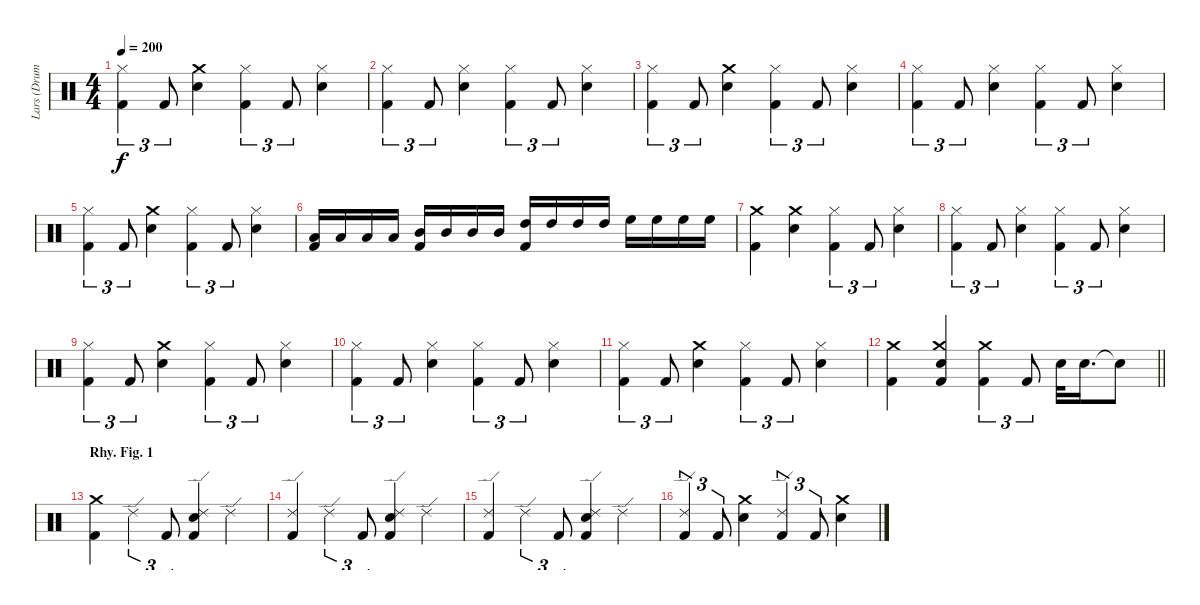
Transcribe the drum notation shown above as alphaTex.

\track ("Lars (Drums)" "Lars (Drum") {instrument percussion}
\staff {score}
\articulation defaults
\ts (4 4)
\tempo 200
\clef neutral
\ks c
("Kick (hit) 2" "Hi-Hat (closed)").4{tu (3 2) dy f} "Kick (hit) 2".8{tu (3 2)} ("Crash medium (hit)" "Snare (hit) 2").4 ("Kick (hit) 2" "Hi-Hat (closed)").4{tu (3 2)} "Kick (hit) 2".8{tu (3 2)} ("Snare (hit) 2" "Hi-Hat (closed)").4 |
("Kick (hit) 2" "Hi-Hat (closed)").4{tu (3 2)} "Kick (hit) 2".8{tu (3 2)} ("Snare (hit) 2" "Hi-Hat (closed)").4 ("Kick (hit) 2" "Hi-Hat (closed)").4{tu (3 2)} "Kick (hit) 2".8{tu (3 2)} ("Snare (hit) 2" "Hi-Hat (closed)").4 |
("Kick (hit) 2" "Hi-Hat (closed)").4{tu (3 2)} "Kick (hit) 2".8{tu (3 2)} ("Crash medium (hit)" "Snare (hit) 2").4 ("Kick (hit) 2" "Hi-Hat (closed)").4{tu (3 2)} "Kick (hit) 2".8{tu (3 2)} ("Snare (hit) 2" "Hi-Hat (closed)").4 |
("Kick (hit) 2" "Hi-Hat (closed)").4{tu (3 2)} "Kick (hit) 2".8{tu (3 2)} ("Snare (hit) 2" "Hi-Hat (closed)").4 ("Kick (hit) 2" "Hi-Hat (closed)").4{tu (3 2)} "Kick (hit) 2".8{tu (3 2)} ("Snare (hit) 2" "Hi-Hat (closed)").4 |
("Kick (hit) 2" "Hi-Hat (closed)").4{tu (3 2)} "Kick (hit) 2".8{tu (3 2)} ("Crash medium (hit)" "Snare (hit) 2").4 ("Kick (hit) 2" "Hi-Hat (closed)").4{tu (3 2)} "Kick (hit) 2".8{tu (3 2)} ("Snare (hit) 2" "Hi-Hat (closed)").4 |
("Low Tom (hit)" "Kick (hit) 2").16 "Low Tom (hit)".16 "Low Tom (hit)".16 "Low Tom (hit)".16 ("Mid Tom (hit)" "Kick (hit) 2").16 "Mid Tom (hit)".16 "Mid Tom (hit)".16 "Mid Tom (hit)".16 ("High Tom (hit)" "Kick (hit) 2").16 "High Tom (hit)".16 "High Tom (hit)".16 "High Tom (hit)".16 "High Floor Tom (hit)".16 "High Floor Tom (hit)".16 "High Floor Tom (hit)".16 "High Floor Tom (hit)".16 |
("Kick (hit) 2" "Crash medium (hit)").4 ("Snare (hit) 2" "Crash medium (hit)").4 ("Hi-Hat (closed)" "Kick (hit) 2").4{tu (3 2)} "Kick (hit) 2".8{tu (3 2)} ("Hi-Hat (closed)" "Snare (hit) 2").4 |
("Kick (hit) 2" "Hi-Hat (closed)").4{tu (3 2)} "Kick (hit) 2".8{tu (3 2)} ("Snare (hit) 2" "Hi-Hat (closed)").4 ("Kick (hit) 2" "Hi-Hat (closed)").4{tu (3 2)} "Kick (hit) 2".8{tu (3 2)} ("Snare (hit) 2" "Hi-Hat (closed)").4 |
("Kick (hit) 2" "Hi-Hat (closed)").4{tu (3 2)} "Kick (hit) 2".8{tu (3 2)} ("Crash medium (hit)" "Snare (hit) 2").4 ("Kick (hit) 2" "Hi-Hat (closed)").4{tu (3 2)} "Kick (hit) 2".8{tu (3 2)} ("Snare (hit) 2" "Hi-Hat (closed)").4 |
("Kick (hit) 2" "Hi-Hat (closed)").4{tu (3 2)} "Kick (hit) 2".8{tu (3 2)} ("Snare (hit) 2" "Hi-Hat (closed)").4 ("Kick (hit) 2" "Hi-Hat (closed)").4{tu (3 2)} "Kick (hit) 2".8{tu (3 2)} ("Snare (hit) 2" "Hi-Hat (closed)").4 |
("Kick (hit) 2" "Hi-Hat (closed)").4{tu (3 2)} "Kick (hit) 2".8{tu (3 2)} ("Crash medium (hit)" "Snare (hit) 2").4 ("Kick (hit) 2" "Hi-Hat (closed)").4{tu (3 2)} "Kick (hit) 2".8{tu (3 2)} ("Snare (hit) 2" "Hi-Hat (closed)").4 |
\barLineRight lightlight
("Kick (hit) 2" "Crash medium (hit)").4 ("Kick (hit) 2" "Snare (hit) 2" "Crash medium (hit)").4 ("Kick (hit) 2" "Crash medium (hit)").4{tu (3 2)} "Kick (hit) 2".8{tu (3 2)} "Snare (hit) 2".32 "Snare (hit) 2".16{d} "Snare (hit)"{t}.8 |
\section ("" "Rhy. Fig. 1")
("Kick (hit) 2" "Crash medium (hit)").4 "Ride (edge) 2".4{tu (3 2)} "Kick (hit) 2".8{tu (3 2)} ("Kick (hit) 2" "Snare (hit) 2" "Ride (edge) 2").4 "Ride (edge) 2".4 |
("Kick (hit) 2" "Ride (edge) 2").4 "Ride (edge) 2".4{tu (3 2)} "Kick (hit) 2".8{tu (3 2)} ("Kick (hit) 2" "Snare (hit) 2" "Ride (edge) 2").4 "Ride (edge) 2".4 |
("Kick (hit) 2" "Ride (edge) 2").4 "Ride (edge) 2".4{tu (3 2)} "Kick (hit) 2".8{tu (3 2)} ("Kick (hit) 2" "Snare (hit) 2" "Ride (edge) 2").4 "Ride (edge) 2".4 |
("Ride (edge) 2" "Kick (hit) 2").4{tu (3 2)} "Kick (hit) 2".8{tu (3 2)} ("Snare (hit) 2" "Crash medium (hit)").4 ("Ride (edge) 2" "Kick (hit) 2").4{tu (3 2)} "Kick (hit) 2".8{tu (3 2)} ("Snare (hit) 2" "Crash medium (hit)").4
